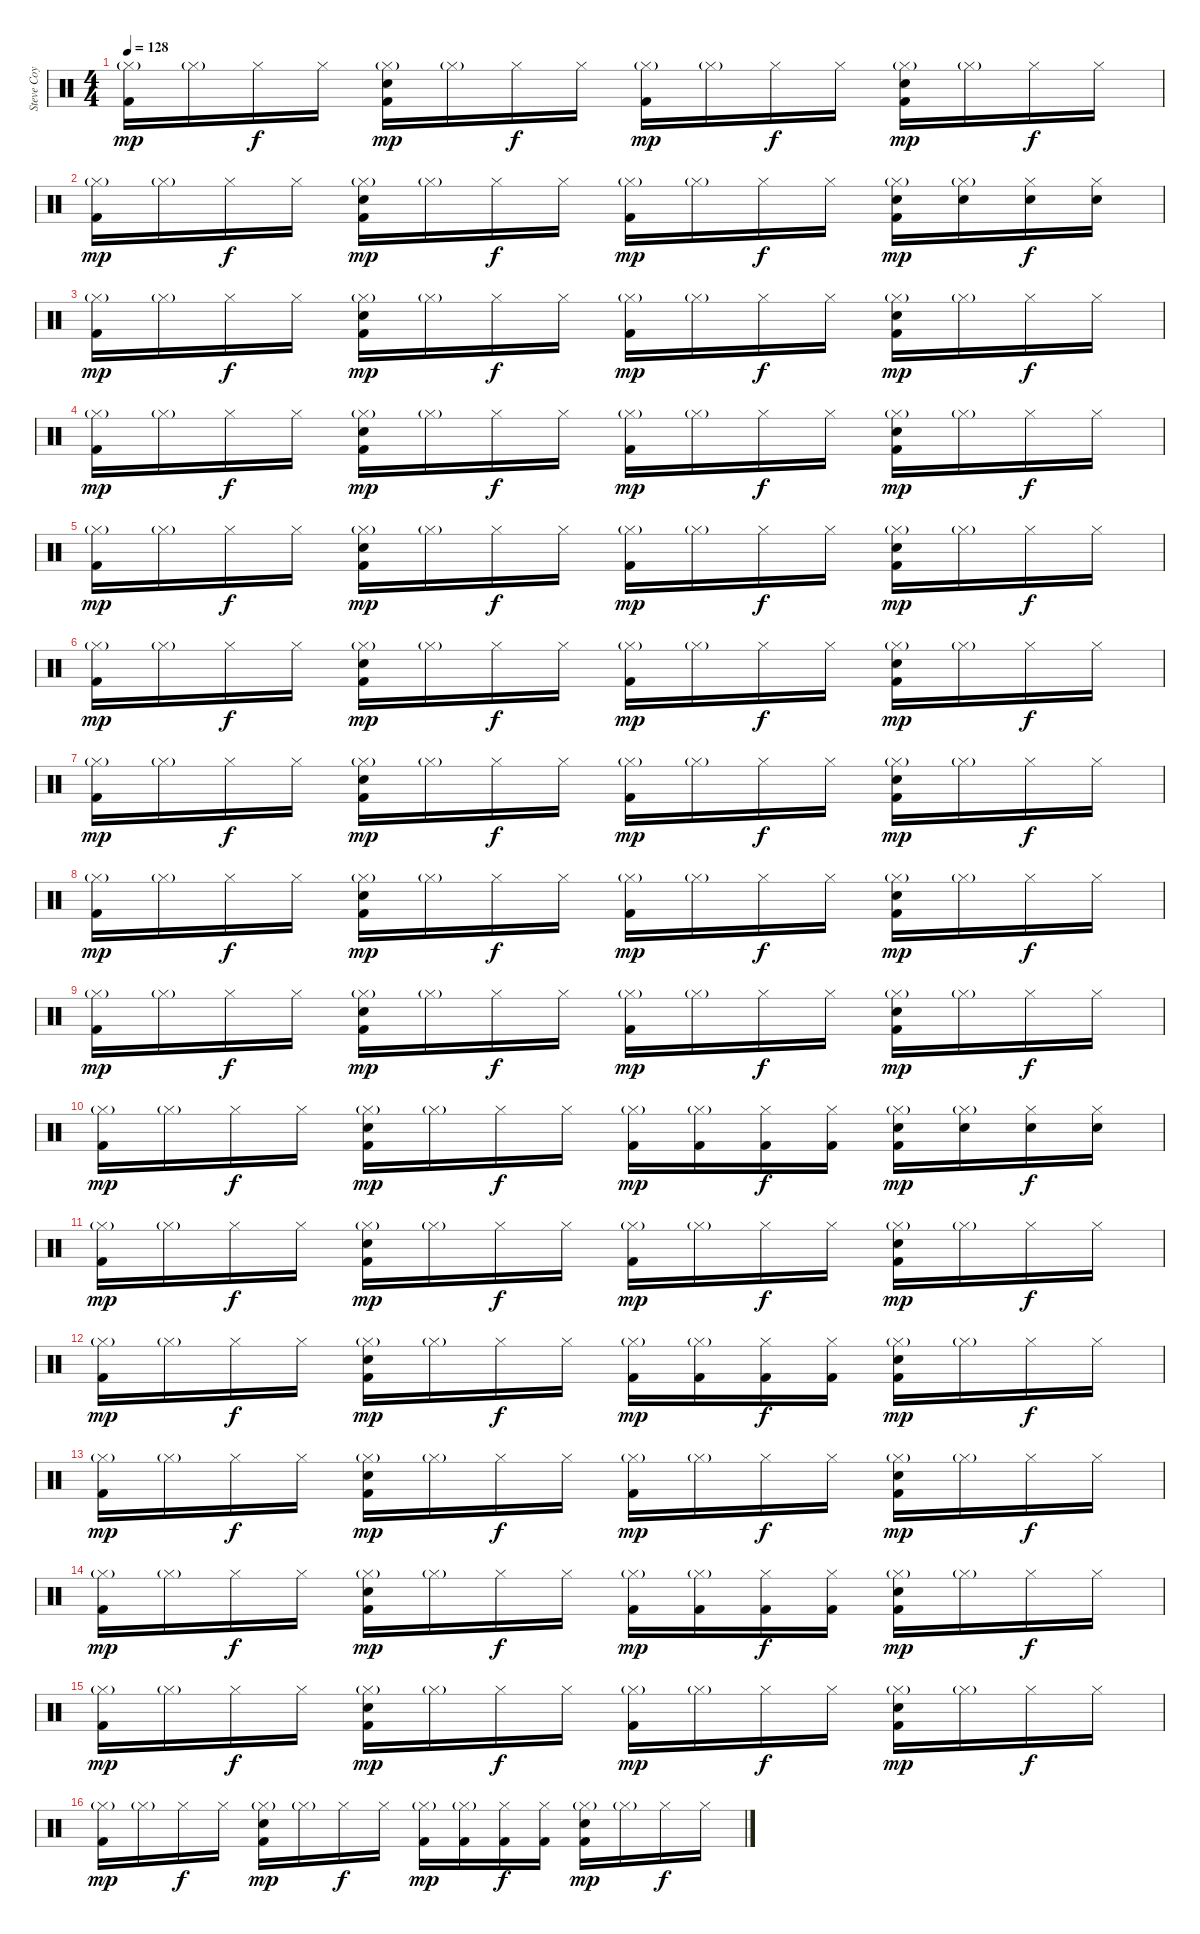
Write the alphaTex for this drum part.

\track ("Steve Coy" "Steve Coy") {instrument percussion}
\staff {score}
\articulation defaults
\ts (4 4)
\tempo 128
\clef neutral
\ks c
("Hi-Hat (closed)"{g} "Kick (hit) 2").16{dy mp} "Hi-Hat (closed)"{g}.16 "Hi-Hat (closed)".16{dy f} "Hi-Hat (closed)".16 ("Hi-Hat (closed)"{g} "Snare (hit) 2" "Kick (hit) 2").16{dy mp} "Hi-Hat (closed)"{g}.16 "Hi-Hat (closed)".16{dy f} "Hi-Hat (closed)".16 ("Hi-Hat (closed)"{g} "Kick (hit) 2").16{dy mp} "Hi-Hat (closed)"{g}.16 "Hi-Hat (closed)".16{dy f} "Hi-Hat (closed)".16 ("Hi-Hat (closed)"{g} "Snare (hit) 2" "Kick (hit) 2").16{dy mp} "Hi-Hat (closed)"{g}.16 "Hi-Hat (closed)".16{dy f} "Hi-Hat (closed)".16 |
("Hi-Hat (closed)"{g} "Kick (hit) 2").16{dy mp} "Hi-Hat (closed)"{g}.16 "Hi-Hat (closed)".16{dy f} "Hi-Hat (closed)".16 ("Hi-Hat (closed)"{g} "Snare (hit) 2" "Kick (hit) 2").16{dy mp} "Hi-Hat (closed)"{g}.16 "Hi-Hat (closed)".16{dy f} "Hi-Hat (closed)".16 ("Hi-Hat (closed)"{g} "Kick (hit) 2").16{dy mp} "Hi-Hat (closed)"{g}.16 "Hi-Hat (closed)".16{dy f} "Hi-Hat (closed)".16 ("Hi-Hat (closed)"{g} "Snare (hit) 2" "Kick (hit) 2").16{dy mp} ("Hi-Hat (closed)"{g} "Snare (hit) 2").16 ("Hi-Hat (closed)" "Snare (hit) 2").16{dy f} ("Hi-Hat (closed)" "Snare (hit) 2").16 |
("Hi-Hat (closed)"{g} "Kick (hit) 2").16{dy mp} "Hi-Hat (closed)"{g}.16 "Hi-Hat (closed)".16{dy f} "Hi-Hat (closed)".16 ("Hi-Hat (closed)"{g} "Snare (hit) 2" "Kick (hit) 2").16{dy mp} "Hi-Hat (closed)"{g}.16 "Hi-Hat (closed)".16{dy f} "Hi-Hat (closed)".16 ("Hi-Hat (closed)"{g} "Kick (hit) 2").16{dy mp} "Hi-Hat (closed)"{g}.16 "Hi-Hat (closed)".16{dy f} "Hi-Hat (closed)".16 ("Hi-Hat (closed)"{g} "Snare (hit) 2" "Kick (hit) 2").16{dy mp} "Hi-Hat (closed)"{g}.16 "Hi-Hat (closed)".16{dy f} "Hi-Hat (closed)".16 |
("Hi-Hat (closed)"{g} "Kick (hit) 2").16{dy mp} "Hi-Hat (closed)"{g}.16 "Hi-Hat (closed)".16{dy f} "Hi-Hat (closed)".16 ("Hi-Hat (closed)"{g} "Snare (hit) 2" "Kick (hit) 2").16{dy mp} "Hi-Hat (closed)"{g}.16 "Hi-Hat (closed)".16{dy f} "Hi-Hat (closed)".16 ("Hi-Hat (closed)"{g} "Kick (hit) 2").16{dy mp} "Hi-Hat (closed)"{g}.16 "Hi-Hat (closed)".16{dy f} "Hi-Hat (closed)".16 ("Hi-Hat (closed)"{g} "Snare (hit) 2" "Kick (hit) 2").16{dy mp} "Hi-Hat (closed)"{g}.16 "Hi-Hat (closed)".16{dy f} "Hi-Hat (closed)".16 |
("Hi-Hat (closed)"{g} "Kick (hit) 2").16{dy mp} "Hi-Hat (closed)"{g}.16 "Hi-Hat (closed)".16{dy f} "Hi-Hat (closed)".16 ("Hi-Hat (closed)"{g} "Snare (hit) 2" "Kick (hit) 2").16{dy mp} "Hi-Hat (closed)"{g}.16 "Hi-Hat (closed)".16{dy f} "Hi-Hat (closed)".16 ("Hi-Hat (closed)"{g} "Kick (hit) 2").16{dy mp} "Hi-Hat (closed)"{g}.16 "Hi-Hat (closed)".16{dy f} "Hi-Hat (closed)".16 ("Hi-Hat (closed)"{g} "Snare (hit) 2" "Kick (hit) 2").16{dy mp} "Hi-Hat (closed)"{g}.16 "Hi-Hat (closed)".16{dy f} "Hi-Hat (closed)".16 |
("Hi-Hat (closed)"{g} "Kick (hit) 2").16{dy mp} "Hi-Hat (closed)"{g}.16 "Hi-Hat (closed)".16{dy f} "Hi-Hat (closed)".16 ("Hi-Hat (closed)"{g} "Snare (hit) 2" "Kick (hit) 2").16{dy mp} "Hi-Hat (closed)"{g}.16 "Hi-Hat (closed)".16{dy f} "Hi-Hat (closed)".16 ("Hi-Hat (closed)"{g} "Kick (hit) 2").16{dy mp} "Hi-Hat (closed)"{g}.16 "Hi-Hat (closed)".16{dy f} "Hi-Hat (closed)".16 ("Hi-Hat (closed)"{g} "Snare (hit) 2" "Kick (hit) 2").16{dy mp} "Hi-Hat (closed)"{g}.16 "Hi-Hat (closed)".16{dy f} "Hi-Hat (closed)".16 |
("Hi-Hat (closed)"{g} "Kick (hit) 2").16{dy mp} "Hi-Hat (closed)"{g}.16 "Hi-Hat (closed)".16{dy f} "Hi-Hat (closed)".16 ("Hi-Hat (closed)"{g} "Snare (hit) 2" "Kick (hit) 2").16{dy mp} "Hi-Hat (closed)"{g}.16 "Hi-Hat (closed)".16{dy f} "Hi-Hat (closed)".16 ("Hi-Hat (closed)"{g} "Kick (hit) 2").16{dy mp} "Hi-Hat (closed)"{g}.16 "Hi-Hat (closed)".16{dy f} "Hi-Hat (closed)".16 ("Hi-Hat (closed)"{g} "Snare (hit) 2" "Kick (hit) 2").16{dy mp} "Hi-Hat (closed)"{g}.16 "Hi-Hat (closed)".16{dy f} "Hi-Hat (closed)".16 |
("Hi-Hat (closed)"{g} "Kick (hit) 2").16{dy mp} "Hi-Hat (closed)"{g}.16 "Hi-Hat (closed)".16{dy f} "Hi-Hat (closed)".16 ("Hi-Hat (closed)"{g} "Snare (hit) 2" "Kick (hit) 2").16{dy mp} "Hi-Hat (closed)"{g}.16 "Hi-Hat (closed)".16{dy f} "Hi-Hat (closed)".16 ("Hi-Hat (closed)"{g} "Kick (hit) 2").16{dy mp} "Hi-Hat (closed)"{g}.16 "Hi-Hat (closed)".16{dy f} "Hi-Hat (closed)".16 ("Hi-Hat (closed)"{g} "Snare (hit) 2" "Kick (hit) 2").16{dy mp} "Hi-Hat (closed)"{g}.16 "Hi-Hat (closed)".16{dy f} "Hi-Hat (closed)".16 |
("Hi-Hat (closed)"{g} "Kick (hit) 2").16{dy mp} "Hi-Hat (closed)"{g}.16 "Hi-Hat (closed)".16{dy f} "Hi-Hat (closed)".16 ("Hi-Hat (closed)"{g} "Snare (hit) 2" "Kick (hit) 2").16{dy mp} "Hi-Hat (closed)"{g}.16 "Hi-Hat (closed)".16{dy f} "Hi-Hat (closed)".16 ("Hi-Hat (closed)"{g} "Kick (hit) 2").16{dy mp} "Hi-Hat (closed)"{g}.16 "Hi-Hat (closed)".16{dy f} "Hi-Hat (closed)".16 ("Hi-Hat (closed)"{g} "Snare (hit) 2" "Kick (hit) 2").16{dy mp} "Hi-Hat (closed)"{g}.16 "Hi-Hat (closed)".16{dy f} "Hi-Hat (closed)".16 |
("Hi-Hat (closed)"{g} "Kick (hit) 2").16{dy mp} "Hi-Hat (closed)"{g}.16 "Hi-Hat (closed)".16{dy f} "Hi-Hat (closed)".16 ("Hi-Hat (closed)"{g} "Snare (hit) 2" "Kick (hit) 2").16{dy mp} "Hi-Hat (closed)"{g}.16 "Hi-Hat (closed)".16{dy f} "Hi-Hat (closed)".16 ("Hi-Hat (closed)"{g} "Kick (hit) 2").16{dy mp} ("Hi-Hat (closed)"{g} "Kick (hit) 2").16 ("Hi-Hat (closed)" "Kick (hit) 2").16{dy f} ("Hi-Hat (closed)" "Kick (hit) 2").16 ("Hi-Hat (closed)"{g} "Snare (hit) 2" "Kick (hit) 2").16{dy mp} ("Hi-Hat (closed)"{g} "Snare (hit) 2").16 ("Hi-Hat (closed)" "Snare (hit) 2").16{dy f} ("Hi-Hat (closed)" "Snare (hit) 2").16 |
("Hi-Hat (closed)"{g} "Kick (hit) 2").16{dy mp} "Hi-Hat (closed)"{g}.16 "Hi-Hat (closed)".16{dy f} "Hi-Hat (closed)".16 ("Hi-Hat (closed)"{g} "Snare (hit) 2" "Kick (hit) 2").16{dy mp} "Hi-Hat (closed)"{g}.16 "Hi-Hat (closed)".16{dy f} "Hi-Hat (closed)".16 ("Hi-Hat (closed)"{g} "Kick (hit) 2").16{dy mp} "Hi-Hat (closed)"{g}.16 "Hi-Hat (closed)".16{dy f} "Hi-Hat (closed)".16 ("Hi-Hat (closed)"{g} "Snare (hit) 2" "Kick (hit) 2").16{dy mp} "Hi-Hat (closed)"{g}.16 "Hi-Hat (closed)".16{dy f} "Hi-Hat (closed)".16 |
("Hi-Hat (closed)"{g} "Kick (hit) 2").16{dy mp} "Hi-Hat (closed)"{g}.16 "Hi-Hat (closed)".16{dy f} "Hi-Hat (closed)".16 ("Hi-Hat (closed)"{g} "Snare (hit) 2" "Kick (hit) 2").16{dy mp} "Hi-Hat (closed)"{g}.16 "Hi-Hat (closed)".16{dy f} "Hi-Hat (closed)".16 ("Hi-Hat (closed)"{g} "Kick (hit) 2").16{dy mp} ("Hi-Hat (closed)"{g} "Kick (hit) 2").16 ("Hi-Hat (closed)" "Kick (hit) 2").16{dy f} ("Hi-Hat (closed)" "Kick (hit) 2").16 ("Hi-Hat (closed)"{g} "Snare (hit) 2" "Kick (hit) 2").16{dy mp} "Hi-Hat (closed)"{g}.16 "Hi-Hat (closed)".16{dy f} "Hi-Hat (closed)".16 |
("Hi-Hat (closed)"{g} "Kick (hit) 2").16{dy mp} "Hi-Hat (closed)"{g}.16 "Hi-Hat (closed)".16{dy f} "Hi-Hat (closed)".16 ("Hi-Hat (closed)"{g} "Snare (hit) 2" "Kick (hit) 2").16{dy mp} "Hi-Hat (closed)"{g}.16 "Hi-Hat (closed)".16{dy f} "Hi-Hat (closed)".16 ("Hi-Hat (closed)"{g} "Kick (hit) 2").16{dy mp} "Hi-Hat (closed)"{g}.16 "Hi-Hat (closed)".16{dy f} "Hi-Hat (closed)".16 ("Hi-Hat (closed)"{g} "Snare (hit) 2" "Kick (hit) 2").16{dy mp} "Hi-Hat (closed)"{g}.16 "Hi-Hat (closed)".16{dy f} "Hi-Hat (closed)".16 |
("Hi-Hat (closed)"{g} "Kick (hit) 2").16{dy mp} "Hi-Hat (closed)"{g}.16 "Hi-Hat (closed)".16{dy f} "Hi-Hat (closed)".16 ("Hi-Hat (closed)"{g} "Snare (hit) 2" "Kick (hit) 2").16{dy mp} "Hi-Hat (closed)"{g}.16 "Hi-Hat (closed)".16{dy f} "Hi-Hat (closed)".16 ("Hi-Hat (closed)"{g} "Kick (hit) 2").16{dy mp} ("Hi-Hat (closed)"{g} "Kick (hit) 2").16 ("Hi-Hat (closed)" "Kick (hit) 2").16{dy f} ("Hi-Hat (closed)" "Kick (hit) 2").16 ("Hi-Hat (closed)"{g} "Snare (hit) 2" "Kick (hit) 2").16{dy mp} "Hi-Hat (closed)"{g}.16 "Hi-Hat (closed)".16{dy f} "Hi-Hat (closed)".16 |
("Hi-Hat (closed)"{g} "Kick (hit) 2").16{dy mp} "Hi-Hat (closed)"{g}.16 "Hi-Hat (closed)".16{dy f} "Hi-Hat (closed)".16 ("Hi-Hat (closed)"{g} "Snare (hit) 2" "Kick (hit) 2").16{dy mp} "Hi-Hat (closed)"{g}.16 "Hi-Hat (closed)".16{dy f} "Hi-Hat (closed)".16 ("Hi-Hat (closed)"{g} "Kick (hit) 2").16{dy mp} "Hi-Hat (closed)"{g}.16 "Hi-Hat (closed)".16{dy f} "Hi-Hat (closed)".16 ("Hi-Hat (closed)"{g} "Snare (hit) 2" "Kick (hit) 2").16{dy mp} "Hi-Hat (closed)"{g}.16 "Hi-Hat (closed)".16{dy f} "Hi-Hat (closed)".16 |
("Hi-Hat (closed)"{g} "Kick (hit) 2").16{dy mp} "Hi-Hat (closed)"{g}.16 "Hi-Hat (closed)".16{dy f} "Hi-Hat (closed)".16 ("Hi-Hat (closed)"{g} "Snare (hit) 2" "Kick (hit) 2").16{dy mp} "Hi-Hat (closed)"{g}.16 "Hi-Hat (closed)".16{dy f} "Hi-Hat (closed)".16 ("Hi-Hat (closed)"{g} "Kick (hit) 2").16{dy mp} ("Hi-Hat (closed)"{g} "Kick (hit) 2").16 ("Hi-Hat (closed)" "Kick (hit) 2").16{dy f} ("Hi-Hat (closed)" "Kick (hit) 2").16 ("Hi-Hat (closed)"{g} "Snare (hit) 2" "Kick (hit) 2").16{dy mp} "Hi-Hat (closed)"{g}.16 "Hi-Hat (closed)".16{dy f} "Hi-Hat (closed)".16
